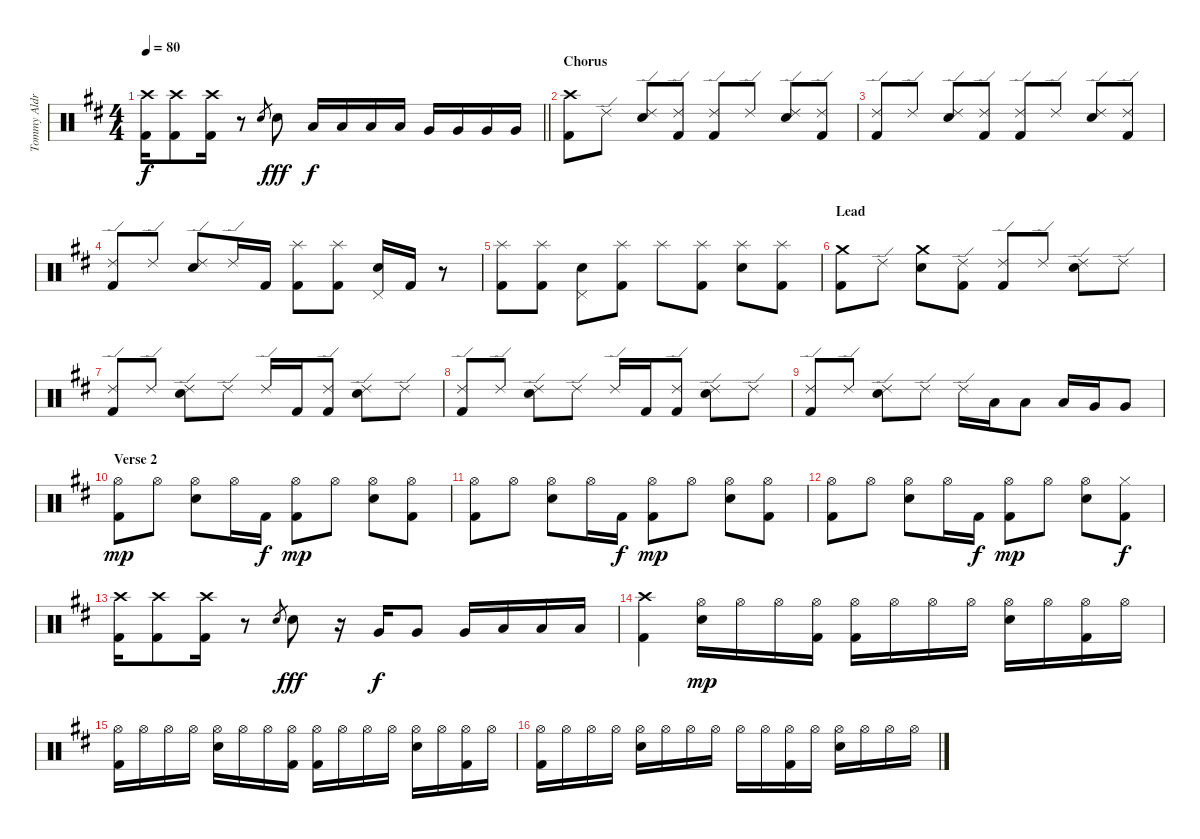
\track ("Tommy Aldridge" "Tommy Aldr") {instrument percussion}
\staff {score}
\articulation defaults
\ts (4 4)
\tempo 80
\clef neutral
\barLineRight lightlight
\ks bminor
("Crash high (hit)" "Kick (hit) 2").16{dy f} ("Crash high (hit)" "Kick (hit) 2").8 ("Crash high (hit)" "Kick (hit) 2").16 r.8 "Snare (hit) 2".8{gr} "Snare (hit) 2".8{dy fff} "Low Tom (hit)".16{dy f} "Low Tom (hit)".16 "Low Tom (hit)".16 "Low Tom (hit)".16 "Very Low Tom (hit)".16 "Very Low Tom (hit)".16 "Very Low Tom (hit)".16 "Very Low Tom (hit)".16 |
\section ("" "Chorus")
("Crash high (hit)" "Kick (hit) 2").8 "Ride (edge) 2".8 ("Ride (edge) 2" "Snare (hit) 2").8 ("Ride (edge) 2" "Kick (hit) 2").8 ("Ride (edge) 2" "Kick (hit) 2").8 "Ride (edge) 2".8 ("Ride (edge) 2" "Snare (hit) 2").8 ("Ride (edge) 2" "Kick (hit) 2").8 |
("Ride (edge) 2" "Kick (hit) 2").8 "Ride (edge) 2".8 ("Ride (edge) 2" "Snare (hit) 2").8 ("Ride (edge) 2" "Kick (hit) 2").8 ("Ride (edge) 2" "Kick (hit) 2").8 "Ride (edge) 2".8 ("Ride (edge) 2" "Snare (hit) 2").8 ("Ride (edge) 2" "Kick (hit) 2").8 |
("Ride (edge) 2" "Kick (hit) 2").8 "Ride (edge) 2".8 ("Ride (edge) 2" "Snare (hit) 2").8 "Ride (edge) 2".16 "Kick (hit) 2".16 ("Splash (hit)" "Kick (hit) 2").8 ("Splash (hit)" "Kick (hit) 2").8 ("Pedal Hi-Hat (hit)" "Snare (hit) 2").16 "Kick (hit) 2".16 r.8 |
("Splash (hit)" "Kick (hit) 2").8 ("Splash (hit)" "Kick (hit) 2").8 ("Pedal Hi-Hat (hit)" "Snare (hit) 2").8 ("Splash (hit)" "Kick (hit) 2").8 "Splash (hit)".8 ("Splash (hit)" "Kick (hit) 2").8 ("Splash (hit)" "Snare (hit) 2").8 ("Splash (hit)" "Kick (hit) 2").8 |
\section ("" "Lead")
("Crash medium (hit)" "Kick (hit) 2").8 "Ride (edge) 2".8 ("Crash medium (hit)" "Snare (hit) 2").8 ("Ride (edge) 2" "Kick (hit) 2").8 ("Ride (edge) 2" "Kick (hit) 2").8 "Ride (edge) 2".8 ("Ride (edge) 2" "Snare (hit) 2").8 "Ride (edge) 2".8 |
("Ride (edge) 2" "Kick (hit) 2").8 "Ride (edge) 2".8 ("Ride (edge) 2" "Snare (hit) 2").8 "Ride (edge) 2".8 "Ride (edge) 2".16 "Kick (hit) 2".16 ("Ride (edge) 2" "Kick (hit) 2").8 ("Ride (edge) 2" "Snare (hit) 2").8 "Ride (edge) 2".8 |
("Ride (edge) 2" "Kick (hit) 2").8 "Ride (edge) 2".8 ("Ride (edge) 2" "Snare (hit) 2").8 "Ride (edge) 2".8 "Ride (edge) 2".16 "Kick (hit) 2".16 ("Ride (edge) 2" "Kick (hit) 2").8 ("Ride (edge) 2" "Snare (hit) 2").8 "Ride (edge) 2".8 |
("Ride (edge) 2" "Kick (hit) 2").8 "Ride (edge) 2".8 ("Ride (edge) 2" "Snare (hit) 2").8 "Ride (edge) 2".8 "Ride (edge) 2".16 "Low Tom (hit)".16 "Low Tom (hit)".8 "Low Tom (hit)".16 "Very Low Tom (hit)".16 "Very Low Tom (hit)".8 |
\section ("" "Verse 2")
("Hi-Hat (open)" "Kick (hit) 2").8{dy mp} "Hi-Hat (open)".8 ("Hi-Hat (open)" "Snare (hit) 2").8 "Hi-Hat (open)".16 "Kick (hit) 2".16{dy f} ("Hi-Hat (open)" "Kick (hit) 2").8{dy mp} "Hi-Hat (open)".8 ("Hi-Hat (open)" "Snare (hit) 2").8 ("Hi-Hat (open)" "Kick (hit) 2").8 |
("Hi-Hat (open)" "Kick (hit) 2").8 "Hi-Hat (open)".8 ("Hi-Hat (open)" "Snare (hit) 2").8 "Hi-Hat (open)".16 "Kick (hit) 2".16{dy f} ("Hi-Hat (open)" "Kick (hit) 2").8{dy mp} "Hi-Hat (open)".8 ("Hi-Hat (open)" "Snare (hit) 2").8 ("Hi-Hat (open)" "Kick (hit) 2").8 |
("Hi-Hat (open)" "Kick (hit) 2").8 "Hi-Hat (open)".8 ("Hi-Hat (open)" "Snare (hit) 2").8 "Hi-Hat (open)".16 "Kick (hit) 2".16{dy f} ("Hi-Hat (open)" "Kick (hit) 2").8{dy mp} "Hi-Hat (open)".8 ("Hi-Hat (open)" "Snare (hit) 2").8 ("Hi-Hat (closed)" "Kick (hit) 2").8{dy f} |
("Crash high (hit)" "Kick (hit) 2").16 ("Crash high (hit)" "Kick (hit) 2").8 ("Crash high (hit)" "Kick (hit) 2").16 r.8 "Snare (hit) 2".8{gr} "Snare (hit) 2".8{dy fff} r.16 "Very Low Tom (hit)".16{dy f} "Very Low Tom (hit)".8 "Very Low Tom (hit)".16 "Low Floor Tom (hit)".16 "Low Floor Tom (hit)".16 "Low Floor Tom (hit)".16 |
("Crash high (hit)" "Kick (hit) 2").4 ("Hi-Hat (open)" "Snare (hit) 2").16{dy mp} "Hi-Hat (open)".16 "Hi-Hat (open)".16 ("Hi-Hat (open)" "Kick (hit) 2").16 ("Hi-Hat (open)" "Kick (hit) 2").16 "Hi-Hat (open)".16 "Hi-Hat (open)".16 "Hi-Hat (open)".16 ("Hi-Hat (open)" "Snare (hit) 2").16 "Hi-Hat (open)".16 ("Hi-Hat (open)" "Kick (hit) 2").16 "Hi-Hat (open)".16 |
("Hi-Hat (open)" "Kick (hit) 2").16 "Hi-Hat (open)".16 "Hi-Hat (open)".16 "Hi-Hat (open)".16 ("Hi-Hat (open)" "Snare (hit) 2").16 "Hi-Hat (open)".16 "Hi-Hat (open)".16 ("Hi-Hat (open)" "Kick (hit) 2").16 ("Hi-Hat (open)" "Kick (hit) 2").16 "Hi-Hat (open)".16 "Hi-Hat (open)".16 "Hi-Hat (open)".16 ("Hi-Hat (open)" "Snare (hit) 2").16 "Hi-Hat (open)".16 ("Hi-Hat (open)" "Kick (hit) 2").16 "Hi-Hat (open)".16 |
("Hi-Hat (open)" "Kick (hit) 2").16 "Hi-Hat (open)".16 "Hi-Hat (open)".16 "Hi-Hat (open)".16 ("Hi-Hat (open)" "Snare (hit) 2").16 "Hi-Hat (open)".16 "Hi-Hat (open)".16 "Hi-Hat (open)".16 "Hi-Hat (open)".16 "Hi-Hat (open)".16 ("Hi-Hat (open)" "Kick (hit) 2").16 "Hi-Hat (open)".16 ("Hi-Hat (open)" "Snare (hit) 2").16 "Hi-Hat (open)".16 "Hi-Hat (open)".16 "Hi-Hat (open)".16
